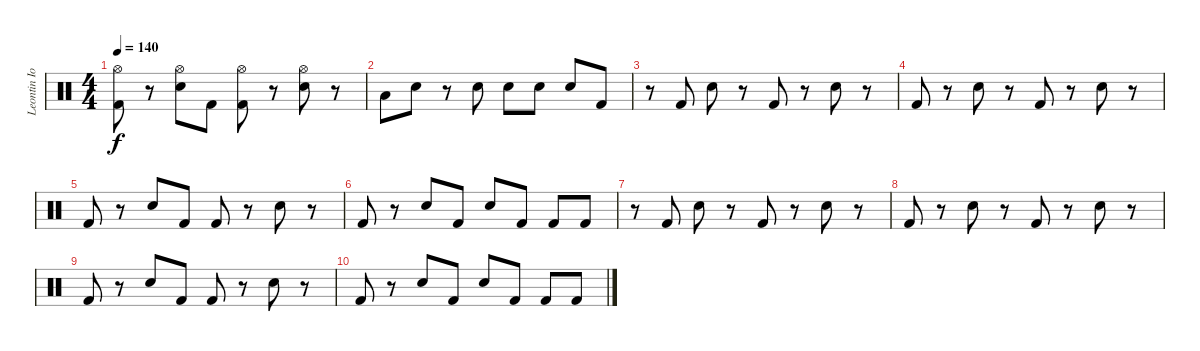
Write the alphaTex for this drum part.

\track ("Leontin Iovan" "Leontin Io") {instrument percussion}
\staff {score}
\articulation defaults
\ts (4 4)
\tempo 140
\clef neutral
\ks c
("Kick (hit) 2" "Hi-Hat (open)").8{dy f} r.8 ("Snare (hit) 2" "Hi-Hat (open)").8 "Kick (hit) 2".8 ("Kick (hit) 2" "Hi-Hat (open)").8 r.8 ("Snare (hit) 2" "Hi-Hat (open)").8 r.8 |
"Low Floor Tom (hit)".8 "Snare (hit)".8 r.8 "Snare (hit) 2".8 "Snare (hit) 2".8 "Snare (hit) 2".8 "Snare (hit) 2".8 "Kick (hit) 2".8 |
r.8 "Kick (hit) 2".8 "Snare (hit) 2".8 r.8 "Kick (hit) 2".8 r.8 "Snare (hit) 2".8 r.8 |
"Kick (hit) 2".8 r.8 "Snare (hit) 2".8 r.8 "Kick (hit) 2".8 r.8 "Snare (hit) 2".8 r.8 |
"Kick (hit) 2".8 r.8 "Snare (hit) 2".8 "Kick (hit) 2".8 "Kick (hit) 2".8 r.8 "Snare (hit) 2".8 r.8 |
"Kick (hit) 2".8 r.8 "Snare (hit) 2".8 "Kick (hit) 2".8 "Snare (hit) 2".8 "Kick (hit) 2".8 "Kick (hit) 2".8 "Kick (hit) 2".8 |
r.8 "Kick (hit) 2".8 "Snare (hit) 2".8 r.8 "Kick (hit) 2".8 r.8 "Snare (hit) 2".8 r.8 |
"Kick (hit) 2".8 r.8 "Snare (hit) 2".8 r.8 "Kick (hit) 2".8 r.8 "Snare (hit) 2".8 r.8 |
"Kick (hit) 2".8 r.8 "Snare (hit) 2".8 "Kick (hit) 2".8 "Kick (hit) 2".8 r.8 "Snare (hit) 2".8 r.8 |
"Kick (hit) 2".8 r.8 "Snare (hit) 2".8 "Kick (hit) 2".8 "Snare (hit) 2".8 "Kick (hit) 2".8 "Kick (hit) 2".8 "Kick (hit) 2".8
